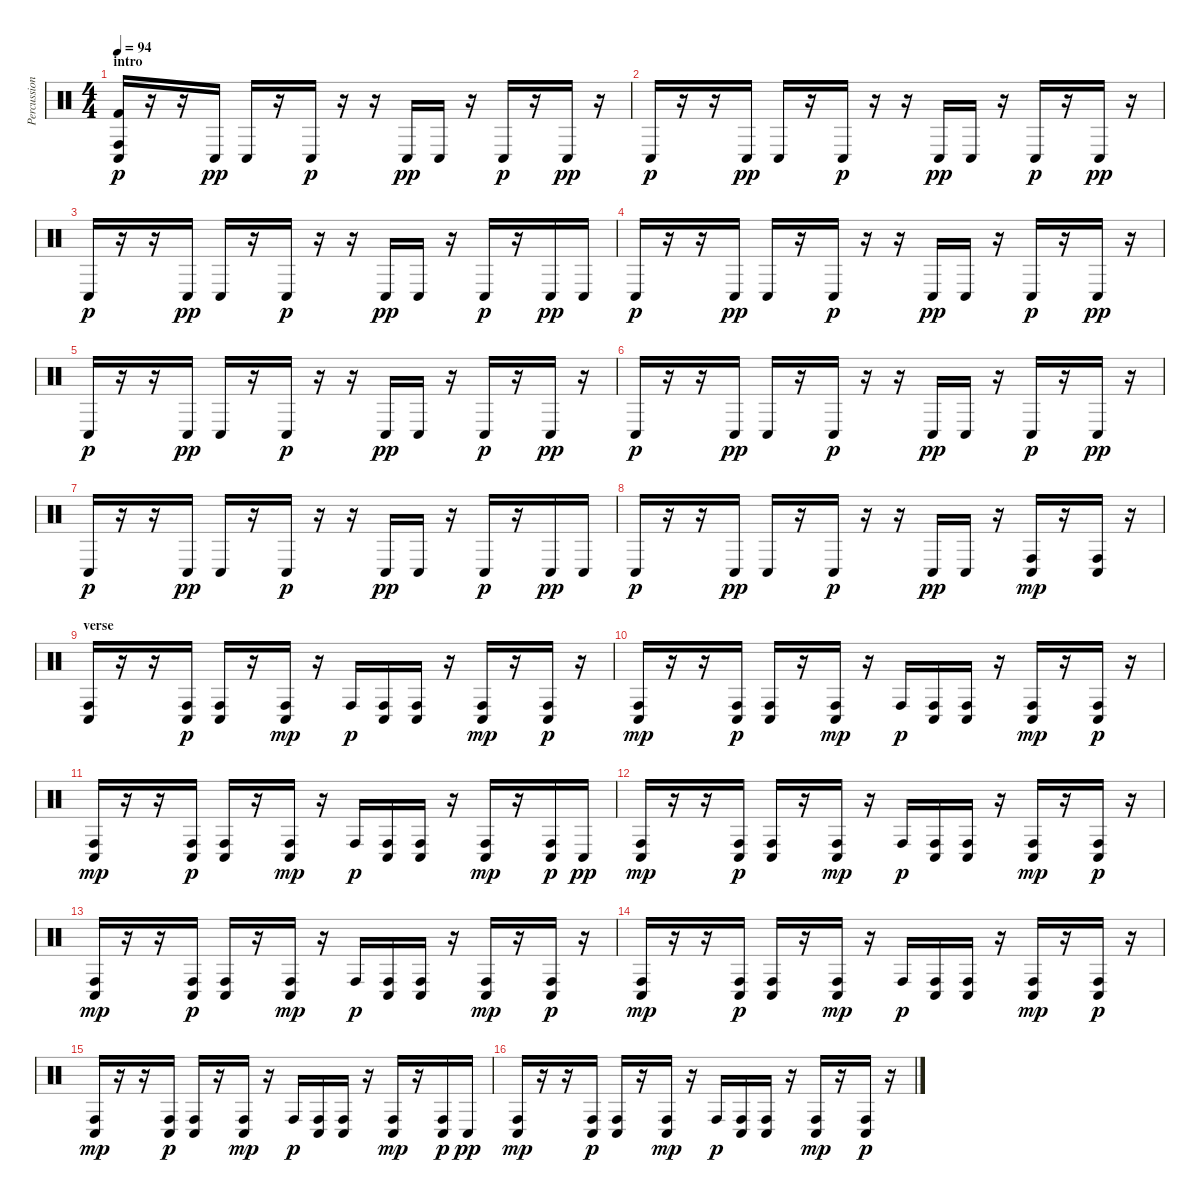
\track ("Percussion" "Percussion") {instrument percussion}
\staff {score}
\articulation defaults
\ts (4 4)
\section ("" "intro")
\tempo 94
\clef neutral
\ks c
("Conga low (hit)" "Conga high (hit)" "Kick (hit) 2").16{dy p} r.16 r.16 "Conga low (hit)".16{dy pp} "Conga low (hit)".16 r.16 "Conga low (hit)".16{dy p} r.16 r.16 "Conga low (hit)".16{dy pp} "Conga low (hit)".16 r.16 "Conga low (hit)".16{dy p} r.16 "Conga low (hit)".16{dy pp} r.16 |
"Conga low (hit)".16{dy p} r.16 r.16 "Conga low (hit)".16{dy pp} "Conga low (hit)".16 r.16 "Conga low (hit)".16{dy p} r.16 r.16 "Conga low (hit)".16{dy pp} "Conga low (hit)".16 r.16 "Conga low (hit)".16{dy p} r.16 "Conga low (hit)".16{dy pp} r.16 |
"Conga low (hit)".16{dy p} r.16 r.16 "Conga low (hit)".16{dy pp} "Conga low (hit)".16 r.16 "Conga low (hit)".16{dy p} r.16 r.16 "Conga low (hit)".16{dy pp} "Conga low (hit)".16 r.16 "Conga low (hit)".16{dy p} r.16 "Conga low (hit)".16{dy pp} "Conga low (hit)".16 |
"Conga low (hit)".16{dy p} r.16 r.16 "Conga low (hit)".16{dy pp} "Conga low (hit)".16 r.16 "Conga low (hit)".16{dy p} r.16 r.16 "Conga low (hit)".16{dy pp} "Conga low (hit)".16 r.16 "Conga low (hit)".16{dy p} r.16 "Conga low (hit)".16{dy pp} r.16 |
"Conga low (hit)".16{dy p} r.16 r.16 "Conga low (hit)".16{dy pp} "Conga low (hit)".16 r.16 "Conga low (hit)".16{dy p} r.16 r.16 "Conga low (hit)".16{dy pp} "Conga low (hit)".16 r.16 "Conga low (hit)".16{dy p} r.16 "Conga low (hit)".16{dy pp} r.16 |
"Conga low (hit)".16{dy p} r.16 r.16 "Conga low (hit)".16{dy pp} "Conga low (hit)".16 r.16 "Conga low (hit)".16{dy p} r.16 r.16 "Conga low (hit)".16{dy pp} "Conga low (hit)".16 r.16 "Conga low (hit)".16{dy p} r.16 "Conga low (hit)".16{dy pp} r.16 |
"Conga low (hit)".16{dy p} r.16 r.16 "Conga low (hit)".16{dy pp} "Conga low (hit)".16 r.16 "Conga low (hit)".16{dy p} r.16 r.16 "Conga low (hit)".16{dy pp} "Conga low (hit)".16 r.16 "Conga low (hit)".16{dy p} r.16 "Conga low (hit)".16{dy pp} "Conga low (hit)".16 |
"Conga low (hit)".16{dy p} r.16 r.16 "Conga low (hit)".16{dy pp} "Conga low (hit)".16 r.16 "Conga low (hit)".16{dy p} r.16 r.16 "Conga low (hit)".16{dy pp} "Conga low (hit)".16 r.16 ("Conga low (hit)" "Conga high (hit)").16{dy mp} r.16 ("Conga low (hit)" "Conga high (hit)").16 r.16 |
\section ("" "verse")
("Conga low (hit)" "Conga high (hit)").16 r.16 r.16 ("Conga low (hit)" "Conga high (hit)").16{dy p} ("Conga low (hit)" "Conga high (hit)").16 r.16 ("Conga low (hit)" "Conga high (hit)").16{dy mp} r.16 "Conga high (hit)".16{dy p} ("Conga low (hit)" "Conga high (hit)").16 ("Conga low (hit)" "Conga high (hit)").16 r.16 ("Conga low (hit)" "Conga high (hit)").16{dy mp} r.16 ("Conga low (hit)" "Conga high (hit)").16{dy p} r.16 |
("Conga low (hit)" "Conga high (hit)").16{dy mp} r.16 r.16 ("Conga low (hit)" "Conga high (hit)").16{dy p} ("Conga low (hit)" "Conga high (hit)").16 r.16 ("Conga low (hit)" "Conga high (hit)").16{dy mp} r.16 "Conga high (hit)".16{dy p} ("Conga low (hit)" "Conga high (hit)").16 ("Conga low (hit)" "Conga high (hit)").16 r.16 ("Conga low (hit)" "Conga high (hit)").16{dy mp} r.16 ("Conga low (hit)" "Conga high (hit)").16{dy p} r.16 |
("Conga low (hit)" "Conga high (hit)").16{dy mp} r.16 r.16 ("Conga low (hit)" "Conga high (hit)").16{dy p} ("Conga low (hit)" "Conga high (hit)").16 r.16 ("Conga low (hit)" "Conga high (hit)").16{dy mp} r.16 "Conga high (hit)".16{dy p} ("Conga low (hit)" "Conga high (hit)").16 ("Conga low (hit)" "Conga high (hit)").16 r.16 ("Conga low (hit)" "Conga high (hit)").16{dy mp} r.16 ("Conga low (hit)" "Conga high (hit)").16{dy p} "Conga low (hit)".16{dy pp} |
("Conga low (hit)" "Conga high (hit)").16{dy mp} r.16 r.16 ("Conga low (hit)" "Conga high (hit)").16{dy p} ("Conga low (hit)" "Conga high (hit)").16 r.16 ("Conga low (hit)" "Conga high (hit)").16{dy mp} r.16 "Conga high (hit)".16{dy p} ("Conga low (hit)" "Conga high (hit)").16 ("Conga low (hit)" "Conga high (hit)").16 r.16 ("Conga low (hit)" "Conga high (hit)").16{dy mp} r.16 ("Conga low (hit)" "Conga high (hit)").16{dy p} r.16 |
("Conga low (hit)" "Conga high (hit)").16{dy mp} r.16 r.16 ("Conga low (hit)" "Conga high (hit)").16{dy p} ("Conga low (hit)" "Conga high (hit)").16 r.16 ("Conga low (hit)" "Conga high (hit)").16{dy mp} r.16 "Conga high (hit)".16{dy p} ("Conga low (hit)" "Conga high (hit)").16 ("Conga low (hit)" "Conga high (hit)").16 r.16 ("Conga low (hit)" "Conga high (hit)").16{dy mp} r.16 ("Conga low (hit)" "Conga high (hit)").16{dy p} r.16 |
("Conga low (hit)" "Conga high (hit)").16{dy mp} r.16 r.16 ("Conga low (hit)" "Conga high (hit)").16{dy p} ("Conga low (hit)" "Conga high (hit)").16 r.16 ("Conga low (hit)" "Conga high (hit)").16{dy mp} r.16 "Conga high (hit)".16{dy p} ("Conga low (hit)" "Conga high (hit)").16 ("Conga low (hit)" "Conga high (hit)").16 r.16 ("Conga low (hit)" "Conga high (hit)").16{dy mp} r.16 ("Conga low (hit)" "Conga high (hit)").16{dy p} r.16 |
("Conga low (hit)" "Conga high (hit)").16{dy mp} r.16 r.16 ("Conga low (hit)" "Conga high (hit)").16{dy p} ("Conga low (hit)" "Conga high (hit)").16 r.16 ("Conga low (hit)" "Conga high (hit)").16{dy mp} r.16 "Conga high (hit)".16{dy p} ("Conga low (hit)" "Conga high (hit)").16 ("Conga low (hit)" "Conga high (hit)").16 r.16 ("Conga low (hit)" "Conga high (hit)").16{dy mp} r.16 ("Conga low (hit)" "Conga high (hit)").16{dy p} "Conga low (hit)".16{dy pp} |
("Conga low (hit)" "Conga high (hit)").16{dy mp} r.16 r.16 ("Conga low (hit)" "Conga high (hit)").16{dy p} ("Conga low (hit)" "Conga high (hit)").16 r.16 ("Conga low (hit)" "Conga high (hit)").16{dy mp} r.16 "Conga high (hit)".16{dy p} ("Conga low (hit)" "Conga high (hit)").16 ("Conga low (hit)" "Conga high (hit)").16 r.16 ("Conga low (hit)" "Conga high (hit)").16{dy mp} r.16 ("Conga low (hit)" "Conga high (hit)").16{dy p} r.16
